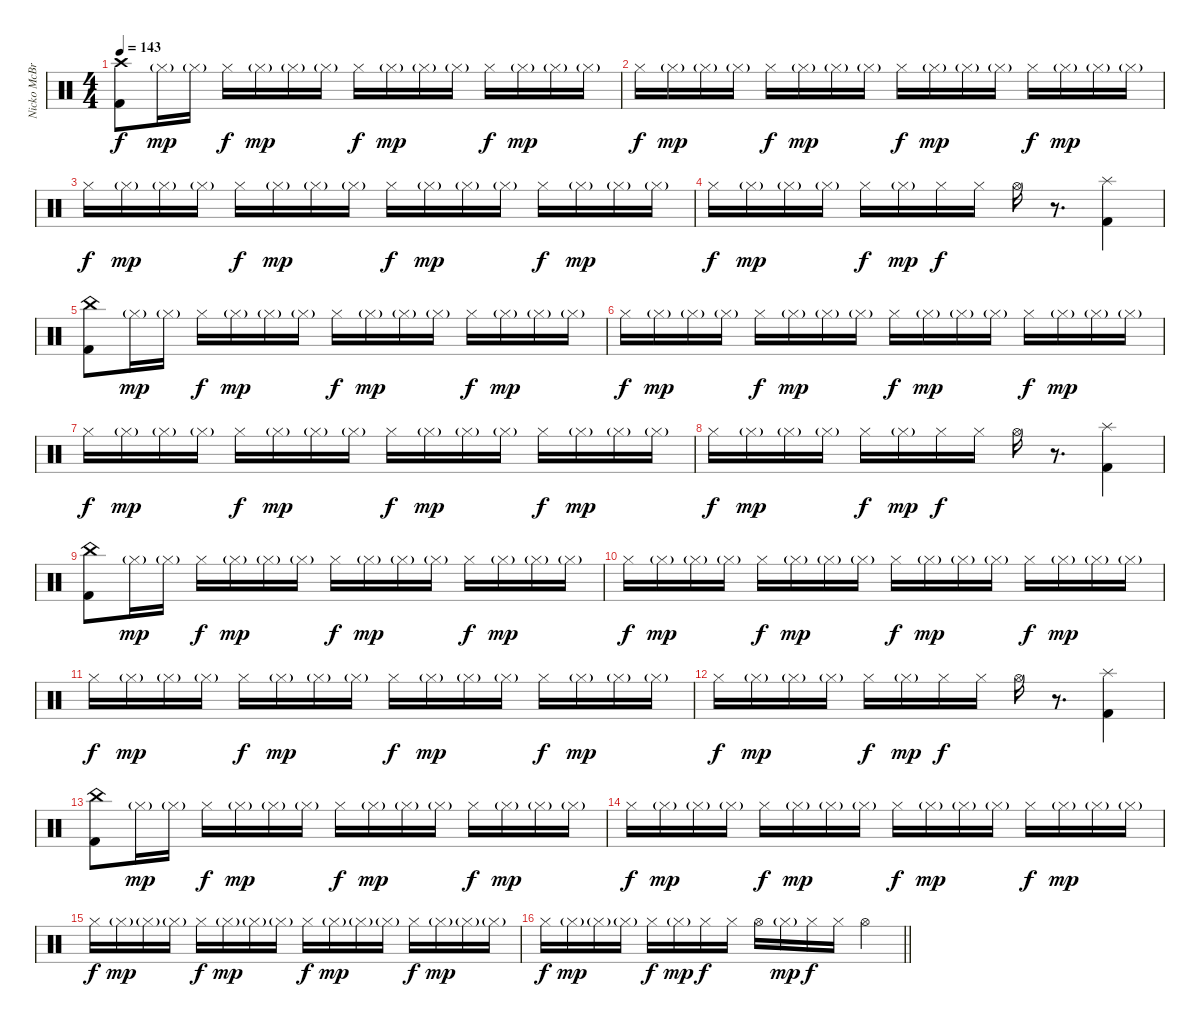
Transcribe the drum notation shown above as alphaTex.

\track ("Nicko McBrian" "Nicko McBr") {instrument percussion}
\staff {score}
\articulation defaults
\ts (4 4)
\tempo 143
\clef neutral
\ks c
("Crash high (hit)" "Kick (hit) 2").8{dy f} "Hi-Hat (closed)"{g}.16{dy mp} "Hi-Hat (closed)"{g}.16 "Hi-Hat (closed)".16{dy f} "Hi-Hat (closed)"{g}.16{dy mp} "Hi-Hat (closed)"{g}.16 "Hi-Hat (closed)"{g}.16 "Hi-Hat (closed)".16{dy f} "Hi-Hat (closed)"{g}.16{dy mp} "Hi-Hat (closed)"{g}.16 "Hi-Hat (closed)"{g}.16 "Hi-Hat (closed)".16{dy f} "Hi-Hat (closed)"{g}.16{dy mp} "Hi-Hat (closed)"{g}.16 "Hi-Hat (closed)"{g}.16 |
"Hi-Hat (closed)".16{dy f} "Hi-Hat (closed)"{g}.16{dy mp} "Hi-Hat (closed)"{g}.16 "Hi-Hat (closed)"{g}.16 "Hi-Hat (closed)".16{dy f} "Hi-Hat (closed)"{g}.16{dy mp} "Hi-Hat (closed)"{g}.16 "Hi-Hat (closed)"{g}.16 "Hi-Hat (closed)".16{dy f} "Hi-Hat (closed)"{g}.16{dy mp} "Hi-Hat (closed)"{g}.16 "Hi-Hat (closed)"{g}.16 "Hi-Hat (closed)".16{dy f} "Hi-Hat (closed)"{g}.16{dy mp} "Hi-Hat (closed)"{g}.16 "Hi-Hat (closed)"{g}.16 |
"Hi-Hat (closed)".16{dy f} "Hi-Hat (closed)"{g}.16{dy mp} "Hi-Hat (closed)"{g}.16 "Hi-Hat (closed)"{g}.16 "Hi-Hat (closed)".16{dy f} "Hi-Hat (closed)"{g}.16{dy mp} "Hi-Hat (closed)"{g}.16 "Hi-Hat (closed)"{g}.16 "Hi-Hat (closed)".16{dy f} "Hi-Hat (closed)"{g}.16{dy mp} "Hi-Hat (closed)"{g}.16 "Hi-Hat (closed)"{g}.16 "Hi-Hat (closed)".16{dy f} "Hi-Hat (closed)"{g}.16{dy mp} "Hi-Hat (closed)"{g}.16 "Hi-Hat (closed)"{g}.16 |
"Hi-Hat (closed)".16{dy f} "Hi-Hat (closed)"{g}.16{dy mp} "Hi-Hat (closed)"{g}.16 "Hi-Hat (closed)"{g}.16 "Hi-Hat (closed)".16{dy f} "Hi-Hat (closed)"{g}.16{dy mp} "Hi-Hat (closed)".16{dy f} "Hi-Hat (closed)".16 "Hi-Hat (open)".16 r.8{d} ("Splash (hit)" "Kick (hit) 2").4 |
("China (hit)" "Kick (hit) 2").8 "Hi-Hat (closed)"{g}.16{dy mp} "Hi-Hat (closed)"{g}.16 "Hi-Hat (closed)".16{dy f} "Hi-Hat (closed)"{g}.16{dy mp} "Hi-Hat (closed)"{g}.16 "Hi-Hat (closed)"{g}.16 "Hi-Hat (closed)".16{dy f} "Hi-Hat (closed)"{g}.16{dy mp} "Hi-Hat (closed)"{g}.16 "Hi-Hat (closed)"{g}.16 "Hi-Hat (closed)".16{dy f} "Hi-Hat (closed)"{g}.16{dy mp} "Hi-Hat (closed)"{g}.16 "Hi-Hat (closed)"{g}.16 |
"Hi-Hat (closed)".16{dy f} "Hi-Hat (closed)"{g}.16{dy mp} "Hi-Hat (closed)"{g}.16 "Hi-Hat (closed)"{g}.16 "Hi-Hat (closed)".16{dy f} "Hi-Hat (closed)"{g}.16{dy mp} "Hi-Hat (closed)"{g}.16 "Hi-Hat (closed)"{g}.16 "Hi-Hat (closed)".16{dy f} "Hi-Hat (closed)"{g}.16{dy mp} "Hi-Hat (closed)"{g}.16 "Hi-Hat (closed)"{g}.16 "Hi-Hat (closed)".16{dy f} "Hi-Hat (closed)"{g}.16{dy mp} "Hi-Hat (closed)"{g}.16 "Hi-Hat (closed)"{g}.16 |
"Hi-Hat (closed)".16{dy f} "Hi-Hat (closed)"{g}.16{dy mp} "Hi-Hat (closed)"{g}.16 "Hi-Hat (closed)"{g}.16 "Hi-Hat (closed)".16{dy f} "Hi-Hat (closed)"{g}.16{dy mp} "Hi-Hat (closed)"{g}.16 "Hi-Hat (closed)"{g}.16 "Hi-Hat (closed)".16{dy f} "Hi-Hat (closed)"{g}.16{dy mp} "Hi-Hat (closed)"{g}.16 "Hi-Hat (closed)"{g}.16 "Hi-Hat (closed)".16{dy f} "Hi-Hat (closed)"{g}.16{dy mp} "Hi-Hat (closed)"{g}.16 "Hi-Hat (closed)"{g}.16 |
"Hi-Hat (closed)".16{dy f} "Hi-Hat (closed)"{g}.16{dy mp} "Hi-Hat (closed)"{g}.16 "Hi-Hat (closed)"{g}.16 "Hi-Hat (closed)".16{dy f} "Hi-Hat (closed)"{g}.16{dy mp} "Hi-Hat (closed)".16{dy f} "Hi-Hat (closed)".16 "Hi-Hat (open)".16 r.8{d} ("Splash (hit)" "Kick (hit) 2").4 |
("China (hit)" "Kick (hit) 2").8 "Hi-Hat (closed)"{g}.16{dy mp} "Hi-Hat (closed)"{g}.16 "Hi-Hat (closed)".16{dy f} "Hi-Hat (closed)"{g}.16{dy mp} "Hi-Hat (closed)"{g}.16 "Hi-Hat (closed)"{g}.16 "Hi-Hat (closed)".16{dy f} "Hi-Hat (closed)"{g}.16{dy mp} "Hi-Hat (closed)"{g}.16 "Hi-Hat (closed)"{g}.16 "Hi-Hat (closed)".16{dy f} "Hi-Hat (closed)"{g}.16{dy mp} "Hi-Hat (closed)"{g}.16 "Hi-Hat (closed)"{g}.16 |
"Hi-Hat (closed)".16{dy f} "Hi-Hat (closed)"{g}.16{dy mp} "Hi-Hat (closed)"{g}.16 "Hi-Hat (closed)"{g}.16 "Hi-Hat (closed)".16{dy f} "Hi-Hat (closed)"{g}.16{dy mp} "Hi-Hat (closed)"{g}.16 "Hi-Hat (closed)"{g}.16 "Hi-Hat (closed)".16{dy f} "Hi-Hat (closed)"{g}.16{dy mp} "Hi-Hat (closed)"{g}.16 "Hi-Hat (closed)"{g}.16 "Hi-Hat (closed)".16{dy f} "Hi-Hat (closed)"{g}.16{dy mp} "Hi-Hat (closed)"{g}.16 "Hi-Hat (closed)"{g}.16 |
"Hi-Hat (closed)".16{dy f} "Hi-Hat (closed)"{g}.16{dy mp} "Hi-Hat (closed)"{g}.16 "Hi-Hat (closed)"{g}.16 "Hi-Hat (closed)".16{dy f} "Hi-Hat (closed)"{g}.16{dy mp} "Hi-Hat (closed)"{g}.16 "Hi-Hat (closed)"{g}.16 "Hi-Hat (closed)".16{dy f} "Hi-Hat (closed)"{g}.16{dy mp} "Hi-Hat (closed)"{g}.16 "Hi-Hat (closed)"{g}.16 "Hi-Hat (closed)".16{dy f} "Hi-Hat (closed)"{g}.16{dy mp} "Hi-Hat (closed)"{g}.16 "Hi-Hat (closed)"{g}.16 |
"Hi-Hat (closed)".16{dy f} "Hi-Hat (closed)"{g}.16{dy mp} "Hi-Hat (closed)"{g}.16 "Hi-Hat (closed)"{g}.16 "Hi-Hat (closed)".16{dy f} "Hi-Hat (closed)"{g}.16{dy mp} "Hi-Hat (closed)".16{dy f} "Hi-Hat (closed)".16 "Hi-Hat (open)".16 r.8{d} ("Splash (hit)" "Kick (hit) 2").4 |
("China (hit)" "Kick (hit) 2").8 "Hi-Hat (closed)"{g}.16{dy mp} "Hi-Hat (closed)"{g}.16 "Hi-Hat (closed)".16{dy f} "Hi-Hat (closed)"{g}.16{dy mp} "Hi-Hat (closed)"{g}.16 "Hi-Hat (closed)"{g}.16 "Hi-Hat (closed)".16{dy f} "Hi-Hat (closed)"{g}.16{dy mp} "Hi-Hat (closed)"{g}.16 "Hi-Hat (closed)"{g}.16 "Hi-Hat (closed)".16{dy f} "Hi-Hat (closed)"{g}.16{dy mp} "Hi-Hat (closed)"{g}.16 "Hi-Hat (closed)"{g}.16 |
"Hi-Hat (closed)".16{dy f} "Hi-Hat (closed)"{g}.16{dy mp} "Hi-Hat (closed)"{g}.16 "Hi-Hat (closed)"{g}.16 "Hi-Hat (closed)".16{dy f} "Hi-Hat (closed)"{g}.16{dy mp} "Hi-Hat (closed)"{g}.16 "Hi-Hat (closed)"{g}.16 "Hi-Hat (closed)".16{dy f} "Hi-Hat (closed)"{g}.16{dy mp} "Hi-Hat (closed)"{g}.16 "Hi-Hat (closed)"{g}.16 "Hi-Hat (closed)".16{dy f} "Hi-Hat (closed)"{g}.16{dy mp} "Hi-Hat (closed)"{g}.16 "Hi-Hat (closed)"{g}.16 |
"Hi-Hat (closed)".16{dy f} "Hi-Hat (closed)"{g}.16{dy mp} "Hi-Hat (closed)"{g}.16 "Hi-Hat (closed)"{g}.16 "Hi-Hat (closed)".16{dy f} "Hi-Hat (closed)"{g}.16{dy mp} "Hi-Hat (closed)"{g}.16 "Hi-Hat (closed)"{g}.16 "Hi-Hat (closed)".16{dy f} "Hi-Hat (closed)"{g}.16{dy mp} "Hi-Hat (closed)"{g}.16 "Hi-Hat (closed)"{g}.16 "Hi-Hat (closed)".16{dy f} "Hi-Hat (closed)"{g}.16{dy mp} "Hi-Hat (closed)"{g}.16 "Hi-Hat (closed)"{g}.16 |
\barLineRight lightlight "Hi-Hat (closed)".16{dy f} "Hi-Hat (closed)"{g}.16{dy mp} "Hi-Hat (closed)"{g}.16 "Hi-Hat (closed)"{g}.16 "Hi-Hat (closed)".16{dy f} "Hi-Hat (closed)"{g}.16{dy mp} "Hi-Hat (closed)".16{dy f} "Hi-Hat (closed)".16 "Hi-Hat (open)".16 "Hi-Hat (closed)"{g}.16{dy mp} "Hi-Hat (closed)".16{dy f} "Hi-Hat (closed)".16 "Hi-Hat (open)".4
